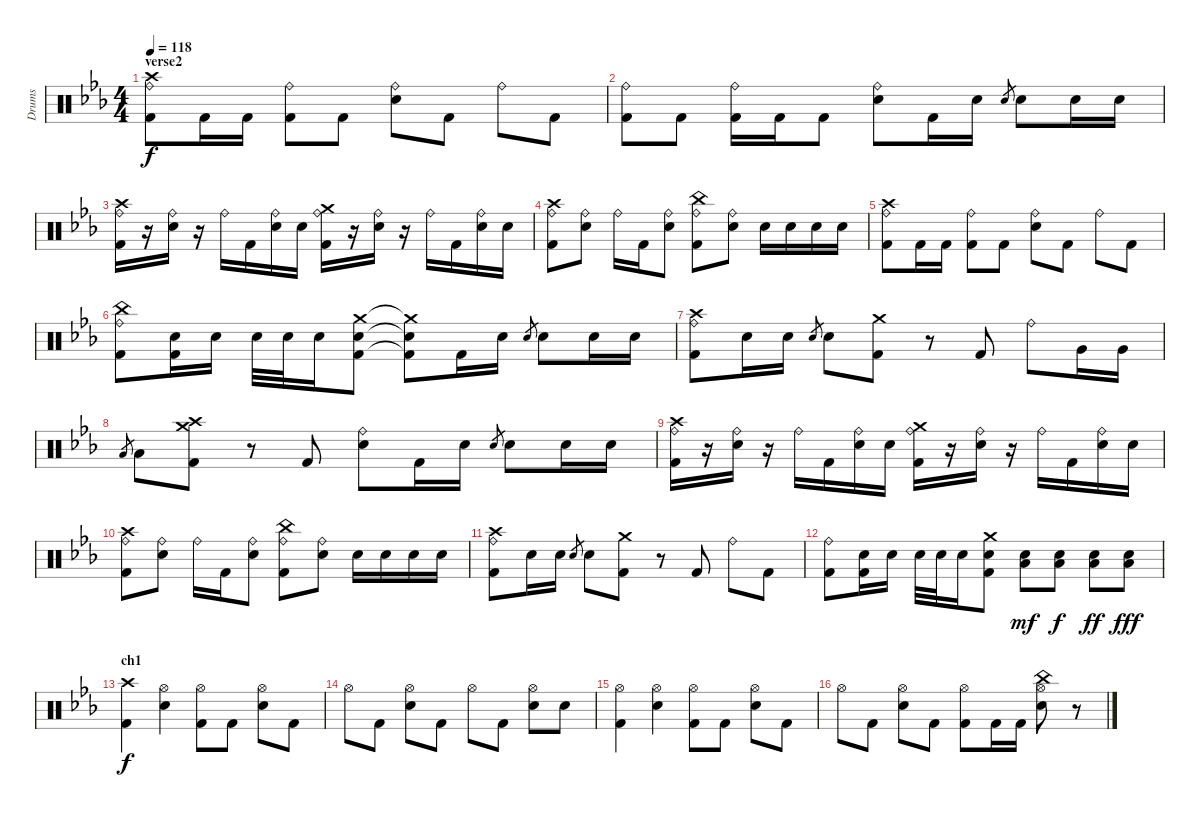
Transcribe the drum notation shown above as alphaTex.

\track ("Drums" "Drums") {instrument percussion}
\staff {score}
\articulation defaults
\ts (4 4)
\section ("" "verse2")
\tempo 118
\clef neutral
\ks cminor
("Kick (hit) 2" "Ride (bell)" "Crash high (hit)").8{dy f} "Kick (hit) 2".16 "Kick (hit) 2".16 ("Kick (hit) 2" "Ride (bell)").8 "Kick (hit) 2".8 ("Ride (bell)" "Electric Snare (hit)").8 "Kick (hit) 2".8 "Ride (bell)".8 "Kick (hit) 2".8 |
("Kick (hit) 2" "Ride (bell)").8 "Kick (hit) 2".8 ("Kick (hit) 2" "Ride (bell)").16 "Kick (hit) 2".16 "Kick (hit) 2".8 ("Ride (bell)" "Electric Snare (hit)").8 "Kick (hit) 2".16 "Electric Snare (hit)".16 "Electric Snare (hit)".8{gr} "Electric Snare (hit)".8 "Electric Snare (hit)".16 "Electric Snare (hit)".16 |
("Kick (hit) 2" "Ride (bell)" "Crash high (hit)").16 r.16 ("Electric Snare (hit)" "Ride (bell)").16 r.16 "Ride (bell)".16 "Kick (hit) 2".16 ("Electric Snare (hit)" "Ride (bell)").16 "Electric Snare (hit)".16 ("Kick (hit) 2" "Ride (bell)" "Crash medium (hit)").16 r.16 ("Electric Snare (hit)" "Ride (bell)").16 r.16 "Ride (bell)".16 "Kick (hit) 2".16 ("Electric Snare (hit)" "Ride (bell)").16 "Electric Snare (hit)".16 |
("Kick (hit) 2" "Ride (bell)" "Crash high (hit)").8 ("Electric Snare (hit)" "Ride (bell)").8 "Ride (bell)".16 "Kick (hit) 2".16 ("Electric Snare (hit)" "Ride (bell)").8 ("Kick (hit) 2" "Ride (bell)" "China (hit)").8 ("Electric Snare (hit)" "Ride (bell)").8 "Electric Snare (hit)".16 "Electric Snare (hit)".16 "Electric Snare (hit)".16 "Electric Snare (hit)".16 |
("Kick (hit) 2" "Ride (bell)" "Crash high (hit)").8 "Kick (hit) 2".16 "Kick (hit) 2".16 ("Kick (hit) 2" "Ride (bell)").8 "Kick (hit) 2".8 ("Ride (bell)" "Electric Snare (hit)").8 "Kick (hit) 2".8 "Ride (bell)".8 "Kick (hit) 2".8 |
("Kick (hit) 2" "Ride (bell)" "China (hit)").8 ("Kick (hit) 2" "Electric Snare (hit)").16 "Electric Snare (hit)".16 "Electric Snare (hit)".32 "Electric Snare (hit)".32 "Electric Snare (hit)".16 ("Kick (hit) 2" "Electric Snare (hit)" "Crash medium (hit)").8 ("Kick (hit) 2"{t} "Electric Snare (hit)"{t} "Crash medium (hit)"{t}).8 "Kick (hit) 2".16 "Electric Snare (hit)".16 "Electric Snare (hit)".8{gr} "Electric Snare (hit)".8 "Electric Snare (hit)".16 "Electric Snare (hit)".16 |
("Kick (hit) 2" "Ride (bell)" "Crash high (hit)").8 "Electric Snare (hit)".16 "Electric Snare (hit)".16 "Electric Snare (hit)".8{gr} "Electric Snare (hit)".8 ("Kick (hit) 2" "Crash medium (hit)").8 r.8 "Kick (hit) 2".8 "Ride (bell)".8 "Very Low Tom (hit)".16 "Very Low Tom (hit)".16 |
"Low Floor Tom (hit)".8{gr} "Low Floor Tom (hit)".8 ("Kick (hit) 2" "Crash medium (hit)" "Crash high (hit)").8 r.8 "Kick (hit) 2".8 ("Ride (bell)" "Electric Snare (hit)").8 "Kick (hit) 2".16 "Electric Snare (hit)".16 "Electric Snare (hit)".8{gr} "Electric Snare (hit)".8 "Electric Snare (hit)".16 "Electric Snare (hit)".16 |
("Kick (hit) 2" "Ride (bell)" "Crash high (hit)").16 r.16 ("Electric Snare (hit)" "Ride (bell)").16 r.16 "Ride (bell)".16 "Kick (hit) 2".16 ("Electric Snare (hit)" "Ride (bell)").16 "Electric Snare (hit)".16 ("Kick (hit) 2" "Ride (bell)" "Crash medium (hit)").16 r.16 ("Electric Snare (hit)" "Ride (bell)").16 r.16 "Ride (bell)".16 "Kick (hit) 2".16 ("Electric Snare (hit)" "Ride (bell)").16 "Electric Snare (hit)".16 |
("Kick (hit) 2" "Ride (bell)" "Crash high (hit)").8 ("Electric Snare (hit)" "Ride (bell)").8 "Ride (bell)".16 "Kick (hit) 2".16 ("Electric Snare (hit)" "Ride (bell)").8 ("Kick (hit) 2" "Ride (bell)" "China (hit)").8 ("Electric Snare (hit)" "Ride (bell)").8 "Electric Snare (hit)".16 "Electric Snare (hit)".16 "Electric Snare (hit)".16 "Electric Snare (hit)".16 |
("Kick (hit) 2" "Ride (bell)" "Crash high (hit)").8 "Electric Snare (hit)".16 "Electric Snare (hit)".16 "Electric Snare (hit)".8{gr} "Electric Snare (hit)".8 ("Kick (hit) 2" "Crash medium (hit)").8 r.8 "Kick (hit) 2".8 "Ride (bell)".8 "Kick (hit) 2".8 |
("Kick (hit) 2" "Ride (bell)").8 ("Kick (hit) 2" "Electric Snare (hit)").16 "Electric Snare (hit)".16 "Electric Snare (hit)".32 "Electric Snare (hit)".32 "Electric Snare (hit)".16 ("Kick (hit) 2" "Electric Snare (hit)" "Crash medium (hit)").8 ("Electric Snare (hit)" "Low Floor Tom (hit)").8{dy mf} ("Electric Snare (hit)" "Low Floor Tom (hit)").8{dy f} ("Electric Snare (hit)" "Low Floor Tom (hit)").8{dy ff} ("Electric Snare (hit)" "Low Floor Tom (hit)").8{dy fff} |
\section ("" "ch1")
("Kick (hit) 2" "Crash high (hit)").4{dy f} ("Hi-Hat (open)" "Electric Snare (hit)").4 ("Kick (hit) 2" "Hi-Hat (open)").8 "Kick (hit) 2".8 ("Hi-Hat (open)" "Electric Snare (hit)").8 "Kick (hit) 2".8 |
"Hi-Hat (open)".8 "Kick (hit) 2".8 ("Hi-Hat (open)" "Electric Snare (hit)").8 "Kick (hit) 2".8 "Hi-Hat (open)".8 "Kick (hit) 2".8 ("Hi-Hat (open)" "Electric Snare (hit)").8 "Electric Snare (hit)".8 |
("Kick (hit) 2" "Hi-Hat (open)").4 ("Hi-Hat (open)" "Electric Snare (hit)").4 ("Kick (hit) 2" "Hi-Hat (open)").8 "Kick (hit) 2".8 ("Hi-Hat (open)" "Electric Snare (hit)").8 "Kick (hit) 2".8 |
"Hi-Hat (open)".8 "Kick (hit) 2".8 ("Hi-Hat (open)" "Electric Snare (hit)").8 "Kick (hit) 2".8 ("Kick (hit) 2" "Hi-Hat (open)").8 "Kick (hit) 2".16 "Kick (hit) 2".16 ("Hi-Hat (open)" "Electric Snare (hit)" "China (hit)").8 r.8
